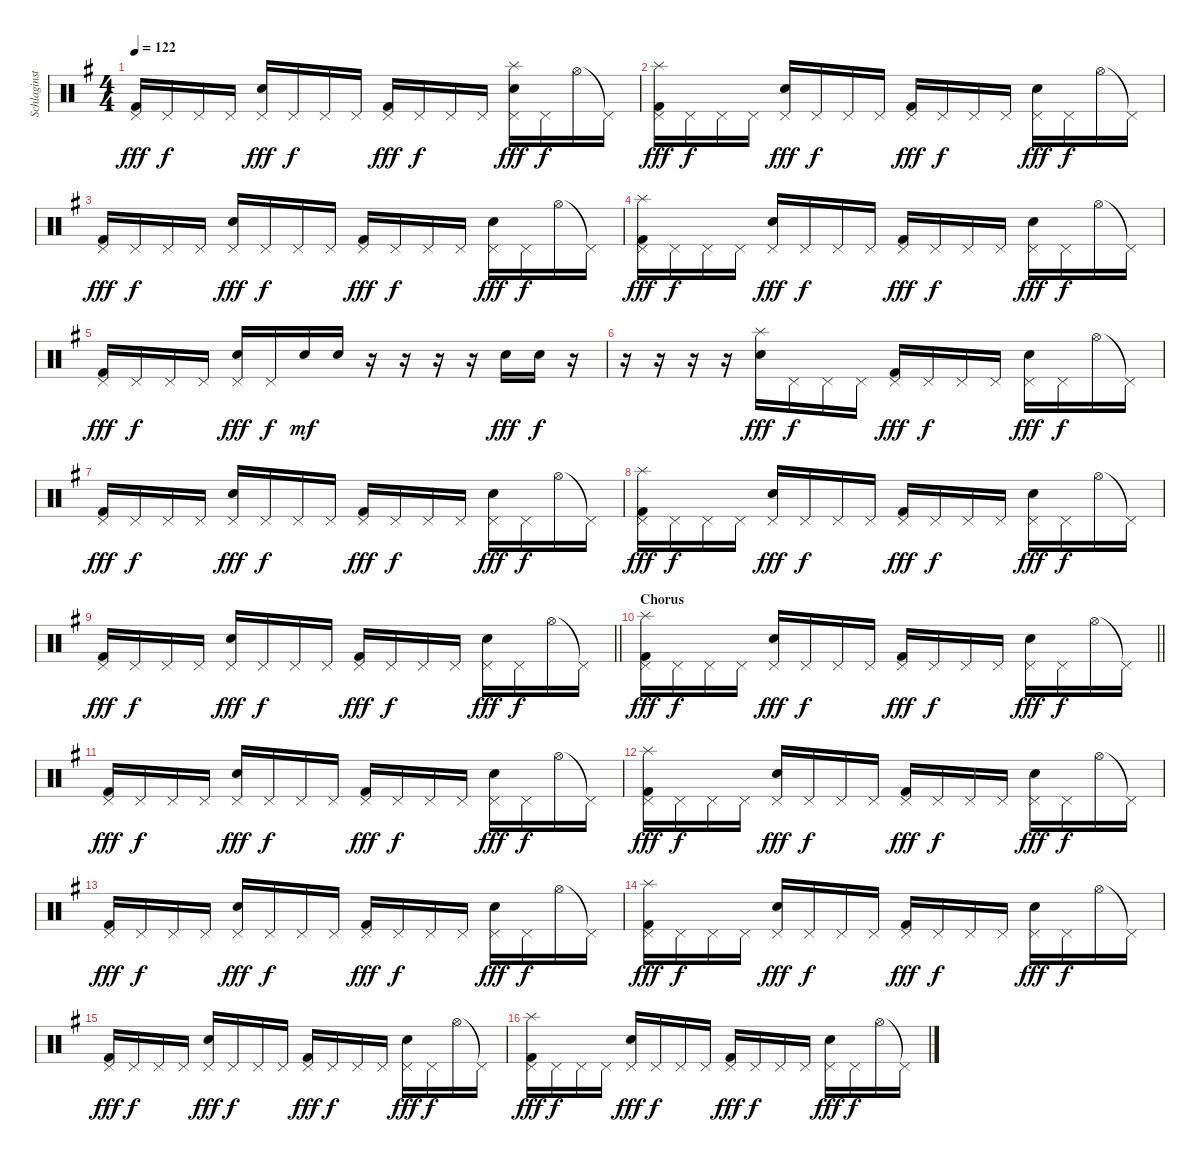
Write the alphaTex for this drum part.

\track ("Schlaginstrumente - Auswahl" "Schlaginst") {instrument percussion}
\staff {score}
\articulation defaults
\ts (4 4)
\tempo 122
\clef neutral
\ks g
("Pedal Hi-Hat (hit)" "Kick (hit) 2").16{dy fff} "Pedal Hi-Hat (hit)".16{dy f} "Pedal Hi-Hat (hit)".16 "Pedal Hi-Hat (hit)".16 ("Pedal Hi-Hat (hit)" "Electric Snare (hit)").16{dy fff} "Pedal Hi-Hat (hit)".16{dy f} "Pedal Hi-Hat (hit)".16 "Pedal Hi-Hat (hit)".16 ("Pedal Hi-Hat (hit)" "Kick (hit) 2").16{dy fff} "Pedal Hi-Hat (hit)".16{dy f} "Pedal Hi-Hat (hit)".16 "Pedal Hi-Hat (hit)".16 ("Splash (hit)" "Pedal Hi-Hat (hit)" "Electric Snare (hit)").16{dy fff} "Pedal Hi-Hat (hit)".16{dy f} "Hi-Hat (open)".16 "Pedal Hi-Hat (hit)"{t}.16 |
("Splash (hit)" "Pedal Hi-Hat (hit)" "Kick (hit) 2").16{dy fff} "Pedal Hi-Hat (hit)".16{dy f} "Pedal Hi-Hat (hit)".16 "Pedal Hi-Hat (hit)".16 ("Pedal Hi-Hat (hit)" "Electric Snare (hit)").16{dy fff} "Pedal Hi-Hat (hit)".16{dy f} "Pedal Hi-Hat (hit)".16 "Pedal Hi-Hat (hit)".16 ("Pedal Hi-Hat (hit)" "Kick (hit) 2").16{dy fff} "Pedal Hi-Hat (hit)".16{dy f} "Pedal Hi-Hat (hit)".16 "Pedal Hi-Hat (hit)".16 ("Pedal Hi-Hat (hit)" "Electric Snare (hit)").16{dy fff} "Pedal Hi-Hat (hit)".16{dy f} "Hi-Hat (open)".16 "Pedal Hi-Hat (hit)"{t}.16 |
("Pedal Hi-Hat (hit)" "Kick (hit) 2").16{dy fff} "Pedal Hi-Hat (hit)".16{dy f} "Pedal Hi-Hat (hit)".16 "Pedal Hi-Hat (hit)".16 ("Pedal Hi-Hat (hit)" "Electric Snare (hit)").16{dy fff} "Pedal Hi-Hat (hit)".16{dy f} "Pedal Hi-Hat (hit)".16 "Pedal Hi-Hat (hit)".16 ("Pedal Hi-Hat (hit)" "Kick (hit) 2").16{dy fff} "Pedal Hi-Hat (hit)".16{dy f} "Pedal Hi-Hat (hit)".16 "Pedal Hi-Hat (hit)".16 ("Pedal Hi-Hat (hit)" "Electric Snare (hit)").16{dy fff} "Pedal Hi-Hat (hit)".16{dy f} "Hi-Hat (open)".16 "Pedal Hi-Hat (hit)"{t}.16 |
("Splash (hit)" "Pedal Hi-Hat (hit)" "Kick (hit) 2").16{dy fff} "Pedal Hi-Hat (hit)".16{dy f} "Pedal Hi-Hat (hit)".16 "Pedal Hi-Hat (hit)".16 ("Pedal Hi-Hat (hit)" "Electric Snare (hit)").16{dy fff} "Pedal Hi-Hat (hit)".16{dy f} "Pedal Hi-Hat (hit)".16 "Pedal Hi-Hat (hit)".16 ("Pedal Hi-Hat (hit)" "Kick (hit) 2").16{dy fff} "Pedal Hi-Hat (hit)".16{dy f} "Pedal Hi-Hat (hit)".16 "Pedal Hi-Hat (hit)".16 ("Pedal Hi-Hat (hit)" "Electric Snare (hit)").16{dy fff} "Pedal Hi-Hat (hit)".16{dy f} "Hi-Hat (open)".16 "Pedal Hi-Hat (hit)"{t}.16 |
("Pedal Hi-Hat (hit)" "Kick (hit) 2").16{dy fff} "Pedal Hi-Hat (hit)".16{dy f} "Pedal Hi-Hat (hit)".16 "Pedal Hi-Hat (hit)".16 ("Pedal Hi-Hat (hit)" "Electric Snare (hit)").16{dy fff} "Pedal Hi-Hat (hit)".16{dy f} "Electric Snare (hit)".16{dy mf} "Electric Snare (hit)".16 r.16 r.16 r.16 r.16 "Electric Snare (hit)".16{dy fff} "Electric Snare (hit)".16{dy f} r.16 |
r.16 r.16 r.16 r.16 ("Splash (hit)" "Electric Snare (hit)").16{dy fff} "Pedal Hi-Hat (hit)".16{dy f} "Pedal Hi-Hat (hit)".16 "Pedal Hi-Hat (hit)".16 ("Pedal Hi-Hat (hit)" "Kick (hit) 2").16{dy fff} "Pedal Hi-Hat (hit)".16{dy f} "Pedal Hi-Hat (hit)".16 "Pedal Hi-Hat (hit)".16 ("Pedal Hi-Hat (hit)" "Electric Snare (hit)").16{dy fff} "Pedal Hi-Hat (hit)".16{dy f} "Hi-Hat (open)".16 "Pedal Hi-Hat (hit)"{t}.16 |
("Pedal Hi-Hat (hit)" "Kick (hit) 2").16{dy fff} "Pedal Hi-Hat (hit)".16{dy f} "Pedal Hi-Hat (hit)".16 "Pedal Hi-Hat (hit)".16 ("Pedal Hi-Hat (hit)" "Electric Snare (hit)").16{dy fff} "Pedal Hi-Hat (hit)".16{dy f} "Pedal Hi-Hat (hit)".16 "Pedal Hi-Hat (hit)".16 ("Pedal Hi-Hat (hit)" "Kick (hit) 2").16{dy fff} "Pedal Hi-Hat (hit)".16{dy f} "Pedal Hi-Hat (hit)".16 "Pedal Hi-Hat (hit)".16 ("Pedal Hi-Hat (hit)" "Electric Snare (hit)").16{dy fff} "Pedal Hi-Hat (hit)".16{dy f} "Hi-Hat (open)".16 "Pedal Hi-Hat (hit)"{t}.16 |
("Splash (hit)" "Pedal Hi-Hat (hit)" "Kick (hit) 2").16{dy fff} "Pedal Hi-Hat (hit)".16{dy f} "Pedal Hi-Hat (hit)".16 "Pedal Hi-Hat (hit)".16 ("Pedal Hi-Hat (hit)" "Electric Snare (hit)").16{dy fff} "Pedal Hi-Hat (hit)".16{dy f} "Pedal Hi-Hat (hit)".16 "Pedal Hi-Hat (hit)".16 ("Pedal Hi-Hat (hit)" "Kick (hit) 2").16{dy fff} "Pedal Hi-Hat (hit)".16{dy f} "Pedal Hi-Hat (hit)".16 "Pedal Hi-Hat (hit)".16 ("Pedal Hi-Hat (hit)" "Electric Snare (hit)").16{dy fff} "Pedal Hi-Hat (hit)".16{dy f} "Hi-Hat (open)".16 "Pedal Hi-Hat (hit)"{t}.16 |
\barLineRight lightlight
("Pedal Hi-Hat (hit)" "Kick (hit) 2").16{dy fff} "Pedal Hi-Hat (hit)".16{dy f} "Pedal Hi-Hat (hit)".16 "Pedal Hi-Hat (hit)".16 ("Pedal Hi-Hat (hit)" "Electric Snare (hit)").16{dy fff} "Pedal Hi-Hat (hit)".16{dy f} "Pedal Hi-Hat (hit)".16 "Pedal Hi-Hat (hit)".16 ("Pedal Hi-Hat (hit)" "Kick (hit) 2").16{dy fff} "Pedal Hi-Hat (hit)".16{dy f} "Pedal Hi-Hat (hit)".16 "Pedal Hi-Hat (hit)".16 ("Pedal Hi-Hat (hit)" "Electric Snare (hit)").16{dy fff} "Pedal Hi-Hat (hit)".16{dy f} "Hi-Hat (open)".16 "Pedal Hi-Hat (hit)"{t}.16 |
\section ("" "Chorus")
\barLineRight lightlight
("Splash (hit)" "Pedal Hi-Hat (hit)" "Kick (hit) 2").16{dy fff} "Pedal Hi-Hat (hit)".16{dy f} "Pedal Hi-Hat (hit)".16 "Pedal Hi-Hat (hit)".16 ("Pedal Hi-Hat (hit)" "Electric Snare (hit)").16{dy fff} "Pedal Hi-Hat (hit)".16{dy f} "Pedal Hi-Hat (hit)".16 "Pedal Hi-Hat (hit)".16 ("Pedal Hi-Hat (hit)" "Kick (hit) 2").16{dy fff} "Pedal Hi-Hat (hit)".16{dy f} "Pedal Hi-Hat (hit)".16 "Pedal Hi-Hat (hit)".16 ("Pedal Hi-Hat (hit)" "Electric Snare (hit)").16{dy fff} "Pedal Hi-Hat (hit)".16{dy f} "Hi-Hat (open)".16 "Pedal Hi-Hat (hit)"{t}.16 |
\section ("" "")
("Pedal Hi-Hat (hit)" "Kick (hit) 2").16{dy fff} "Pedal Hi-Hat (hit)".16{dy f} "Pedal Hi-Hat (hit)".16 "Pedal Hi-Hat (hit)".16 ("Pedal Hi-Hat (hit)" "Electric Snare (hit)").16{dy fff} "Pedal Hi-Hat (hit)".16{dy f} "Pedal Hi-Hat (hit)".16 "Pedal Hi-Hat (hit)".16 ("Pedal Hi-Hat (hit)" "Kick (hit) 2").16{dy fff} "Pedal Hi-Hat (hit)".16{dy f} "Pedal Hi-Hat (hit)".16 "Pedal Hi-Hat (hit)".16 ("Pedal Hi-Hat (hit)" "Electric Snare (hit)").16{dy fff} "Pedal Hi-Hat (hit)".16{dy f} "Hi-Hat (open)".16 "Pedal Hi-Hat (hit)"{t}.16 |
("Splash (hit)" "Pedal Hi-Hat (hit)" "Kick (hit) 2").16{dy fff} "Pedal Hi-Hat (hit)".16{dy f} "Pedal Hi-Hat (hit)".16 "Pedal Hi-Hat (hit)".16 ("Pedal Hi-Hat (hit)" "Electric Snare (hit)").16{dy fff} "Pedal Hi-Hat (hit)".16{dy f} "Pedal Hi-Hat (hit)".16 "Pedal Hi-Hat (hit)".16 ("Pedal Hi-Hat (hit)" "Kick (hit) 2").16{dy fff} "Pedal Hi-Hat (hit)".16{dy f} "Pedal Hi-Hat (hit)".16 "Pedal Hi-Hat (hit)".16 ("Pedal Hi-Hat (hit)" "Electric Snare (hit)").16{dy fff} "Pedal Hi-Hat (hit)".16{dy f} "Hi-Hat (open)".16 "Pedal Hi-Hat (hit)"{t}.16 |
("Pedal Hi-Hat (hit)" "Kick (hit) 2").16{dy fff} "Pedal Hi-Hat (hit)".16{dy f} "Pedal Hi-Hat (hit)".16 "Pedal Hi-Hat (hit)".16 ("Pedal Hi-Hat (hit)" "Electric Snare (hit)").16{dy fff} "Pedal Hi-Hat (hit)".16{dy f} "Pedal Hi-Hat (hit)".16 "Pedal Hi-Hat (hit)".16 ("Pedal Hi-Hat (hit)" "Kick (hit) 2").16{dy fff} "Pedal Hi-Hat (hit)".16{dy f} "Pedal Hi-Hat (hit)".16 "Pedal Hi-Hat (hit)".16 ("Pedal Hi-Hat (hit)" "Electric Snare (hit)").16{dy fff} "Pedal Hi-Hat (hit)".16{dy f} "Hi-Hat (open)".16 "Pedal Hi-Hat (hit)"{t}.16 |
("Splash (hit)" "Pedal Hi-Hat (hit)" "Kick (hit) 2").16{dy fff} "Pedal Hi-Hat (hit)".16{dy f} "Pedal Hi-Hat (hit)".16 "Pedal Hi-Hat (hit)".16 ("Pedal Hi-Hat (hit)" "Electric Snare (hit)").16{dy fff} "Pedal Hi-Hat (hit)".16{dy f} "Pedal Hi-Hat (hit)".16 "Pedal Hi-Hat (hit)".16 ("Pedal Hi-Hat (hit)" "Kick (hit) 2").16{dy fff} "Pedal Hi-Hat (hit)".16{dy f} "Pedal Hi-Hat (hit)".16 "Pedal Hi-Hat (hit)".16 ("Pedal Hi-Hat (hit)" "Electric Snare (hit)").16{dy fff} "Pedal Hi-Hat (hit)".16{dy f} "Hi-Hat (open)".16 "Pedal Hi-Hat (hit)"{t}.16 |
("Pedal Hi-Hat (hit)" "Kick (hit) 2").16{dy fff} "Pedal Hi-Hat (hit)".16{dy f} "Pedal Hi-Hat (hit)".16 "Pedal Hi-Hat (hit)".16 ("Pedal Hi-Hat (hit)" "Electric Snare (hit)").16{dy fff} "Pedal Hi-Hat (hit)".16{dy f} "Pedal Hi-Hat (hit)".16 "Pedal Hi-Hat (hit)".16 ("Pedal Hi-Hat (hit)" "Kick (hit) 2").16{dy fff} "Pedal Hi-Hat (hit)".16{dy f} "Pedal Hi-Hat (hit)".16 "Pedal Hi-Hat (hit)".16 ("Pedal Hi-Hat (hit)" "Electric Snare (hit)").16{dy fff} "Pedal Hi-Hat (hit)".16{dy f} "Hi-Hat (open)".16 "Pedal Hi-Hat (hit)"{t}.16 |
("Splash (hit)" "Pedal Hi-Hat (hit)" "Kick (hit) 2").16{dy fff} "Pedal Hi-Hat (hit)".16{dy f} "Pedal Hi-Hat (hit)".16 "Pedal Hi-Hat (hit)".16 ("Pedal Hi-Hat (hit)" "Electric Snare (hit)").16{dy fff} "Pedal Hi-Hat (hit)".16{dy f} "Pedal Hi-Hat (hit)".16 "Pedal Hi-Hat (hit)".16 ("Pedal Hi-Hat (hit)" "Kick (hit) 2").16{dy fff} "Pedal Hi-Hat (hit)".16{dy f} "Pedal Hi-Hat (hit)".16 "Pedal Hi-Hat (hit)".16 ("Pedal Hi-Hat (hit)" "Electric Snare (hit)").16{dy fff} "Pedal Hi-Hat (hit)".16{dy f} "Hi-Hat (open)".16 "Pedal Hi-Hat (hit)"{t}.16
